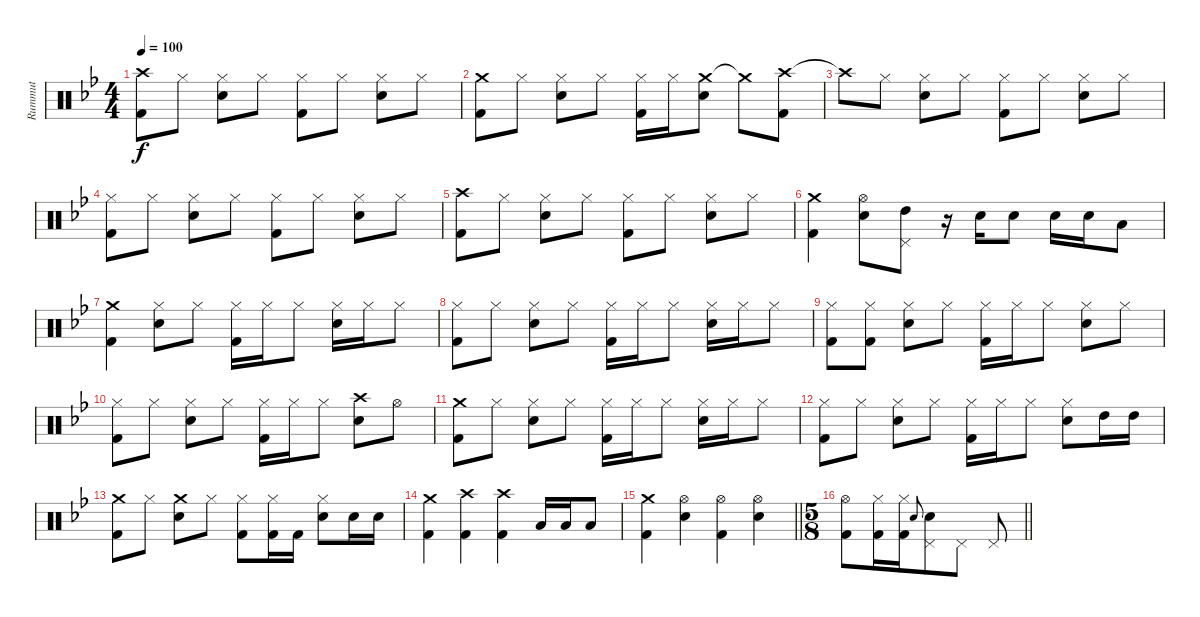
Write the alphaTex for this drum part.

\track ("Rummut" "Rummut") {instrument percussion}
\staff {score}
\articulation defaults
\ts (4 4)
\tempo 100
\clef neutral
\ks gminor
("Crash high (hit)" "Kick (hit) 2").8{dy f} "Hi-Hat (closed)".8 ("Hi-Hat (closed)" "Snare (hit) 2").8 "Hi-Hat (closed)".8 ("Hi-Hat (closed)" "Kick (hit) 2").8 "Hi-Hat (closed)".8 ("Hi-Hat (closed)" "Snare (hit) 2").8 "Hi-Hat (closed)".8 |
("Crash medium (hit)" "Kick (hit) 2").8 "Hi-Hat (closed)".8 ("Hi-Hat (closed)" "Snare (hit) 2").8 "Hi-Hat (closed)".8 ("Hi-Hat (closed)" "Kick (hit) 2").16 "Hi-Hat (closed)".16 ("Crash medium (hit)" "Snare (hit) 2").8 "Crash medium (hit)"{t}.8 ("Crash high (hit)" "Kick (hit) 2").8 |
"Crash high (hit)"{t}.8 "Hi-Hat (closed)".8 ("Hi-Hat (closed)" "Snare (hit) 2").8 "Hi-Hat (closed)".8 ("Hi-Hat (closed)" "Kick (hit) 2").8 "Hi-Hat (closed)".8 ("Hi-Hat (closed)" "Snare (hit) 2").8 "Hi-Hat (closed)".8 |
("Hi-Hat (closed)" "Kick (hit) 2").8 "Hi-Hat (closed)".8 ("Hi-Hat (closed)" "Snare (hit) 2").8 "Hi-Hat (closed)".8 ("Hi-Hat (closed)" "Kick (hit) 2").8 "Hi-Hat (closed)".8 ("Hi-Hat (closed)" "Snare (hit) 2").8 "Hi-Hat (closed)".8 |
("Crash high (hit)" "Kick (hit) 2").8 "Hi-Hat (closed)".8 ("Hi-Hat (closed)" "Snare (hit) 2").8 "Hi-Hat (closed)".8 ("Hi-Hat (closed)" "Kick (hit) 2").8 "Hi-Hat (closed)".8 ("Hi-Hat (closed)" "Snare (hit) 2").8 "Hi-Hat (closed)".8 |
("Crash medium (hit)" "Kick (hit) 2").4 ("Hi-Hat (open)" "Snare (hit) 2").8 ("Pedal Hi-Hat (hit)" "High Tom (hit)").8 r.16 "Snare (hit) 2".16 "Snare (hit) 2".8 "Snare (hit) 2".16 "Snare (hit) 2".16 "Low Tom (hit)".8 |
("Crash medium (hit)" "Kick (hit) 2").4 ("Hi-Hat (closed)" "Snare (hit) 2").8 "Hi-Hat (closed)".8 ("Hi-Hat (closed)" "Kick (hit) 2").16 "Hi-Hat (closed)".16 "Hi-Hat (closed)".8 ("Hi-Hat (closed)" "Snare (hit) 2").16 "Hi-Hat (closed)".16 "Hi-Hat (closed)".8 |
("Hi-Hat (closed)" "Kick (hit) 2").8 "Hi-Hat (closed)".8 ("Hi-Hat (closed)" "Snare (hit) 2").8 "Hi-Hat (closed)".8 ("Hi-Hat (closed)" "Kick (hit) 2").16 "Hi-Hat (closed)".16 "Hi-Hat (closed)".8 ("Hi-Hat (closed)" "Snare (hit) 2").16 "Hi-Hat (closed)".16 "Hi-Hat (closed)".8 |
("Hi-Hat (closed)" "Kick (hit) 2").8 ("Hi-Hat (closed)" "Kick (hit) 2").8 ("Hi-Hat (closed)" "Snare (hit) 2").8 "Hi-Hat (closed)".8 ("Hi-Hat (closed)" "Kick (hit) 2").16 "Hi-Hat (closed)".16 "Hi-Hat (closed)".8 ("Hi-Hat (closed)" "Snare (hit) 2").8 "Hi-Hat (closed)".8 |
("Hi-Hat (closed)" "Kick (hit) 2").8 "Hi-Hat (closed)".8 ("Hi-Hat (closed)" "Snare (hit) 2").8 "Hi-Hat (closed)".8 ("Hi-Hat (closed)" "Kick (hit) 2").16 "Hi-Hat (closed)".16 "Hi-Hat (closed)".8 ("Crash high (hit)" "Snare (hit) 2").8 "Hi-Hat (open)".8 |
("Crash medium (hit)" "Kick (hit) 2").8 "Hi-Hat (closed)".8 ("Hi-Hat (closed)" "Snare (hit) 2").8 "Hi-Hat (closed)".8 ("Hi-Hat (closed)" "Kick (hit) 2").16 "Hi-Hat (closed)".16 "Hi-Hat (closed)".8 ("Hi-Hat (closed)" "Snare (hit) 2").16 "Hi-Hat (closed)".16 "Hi-Hat (closed)".8 |
("Hi-Hat (closed)" "Kick (hit) 2").8 "Hi-Hat (closed)".8 ("Hi-Hat (closed)" "Snare (hit) 2").8 "Hi-Hat (closed)".8 ("Hi-Hat (closed)" "Kick (hit) 2").16 "Hi-Hat (closed)".16 "Hi-Hat (closed)".8 ("Hi-Hat (closed)" "Snare (hit) 2").8 "High Tom (hit)".16 "High Tom (hit)".16 |
("Crash medium (hit)" "Kick (hit) 2").8 "Hi-Hat (closed)".8 ("Crash medium (hit)" "Snare (hit) 2").8 "Hi-Hat (closed)".8 ("Hi-Hat (closed)" "Kick (hit) 2").8 ("Hi-Hat (closed)" "Kick (hit) 2").16 "Kick (hit) 2".16 ("Hi-Hat (closed)" "Snare (hit) 2").8 "Snare (hit) 2".16 "Snare (hit) 2".16 |
("Crash medium (hit)" "Kick (hit) 2").4 ("Crash high (hit)" "Kick (hit) 2").4 ("Crash high (hit)" "Kick (hit) 2").4 "Low Tom (hit)".16 "Low Tom (hit)".16 "Low Tom (hit)".8 |
\barLineRight lightlight
("Crash medium (hit)" "Kick (hit) 2").4 ("Hi-Hat (open)" "Snare (hit) 2").4 ("Hi-Hat (open)" "Kick (hit) 2").4 ("Hi-Hat (open)" "Snare (hit) 2").4 |
\ts (5 8)
\barLineRight lightlight
("Hi-Hat (open)" "Kick (hit) 2").8{beam merge} ("Hi-Hat (closed)" "Kick (hit) 2").16 ("Hi-Hat (closed)" "Kick (hit) 2").16 "Snare (hit) 2".8{gr onbeat} ("Snare (hit) 2" "Pedal Hi-Hat (hit)").8{beam merge} "Pedal Hi-Hat (hit)".8{beam split} "Pedal Hi-Hat (hit)".8
